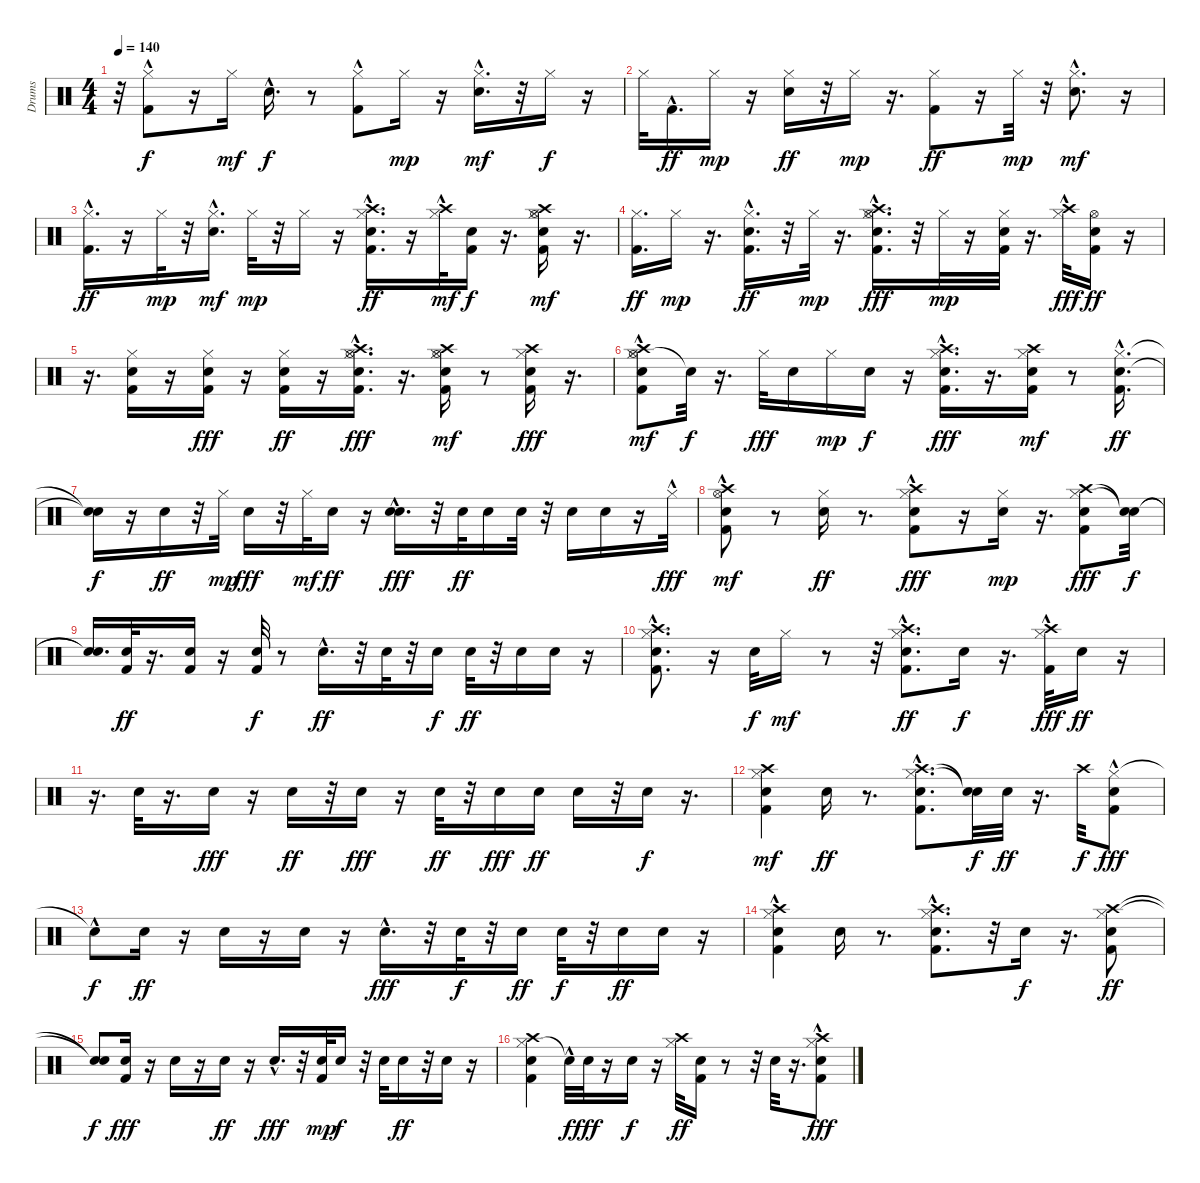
\track ("Drums" "Drums") {instrument percussion}
\staff {score}
\articulation defaults
\ts (4 4)
\tempo 140
\clef neutral
\ks c
r.32{dy mp} ("Hi-Hat (closed)"{hac} "Kick (hit) 2").8{dy f} r.16 "Hi-Hat (closed)".16{dy mf} "Snare (hit) 2"{hac}.16{d dy f} r.8 ("Hi-Hat (closed)"{hac} "Kick (hit) 2").8 "Hi-Hat (closed)".16{dy mp} r.16 ("Hi-Hat (closed)" "Snare (hit) 2"{hac}).16{d dy mf} r.32 "Hi-Hat (closed)".16{dy f} r.16 |
"Hi-Hat (closed)".32 "Kick (hit) 2"{hac}.16{d dy ff} "Hi-Hat (closed)".16{dy mp} r.16 ("Hi-Hat (closed)" "Snare (hit) 2").16{dy ff} r.32 "Hi-Hat (closed)".16{dy mp} r.16{d} ("Hi-Hat (closed)" "Kick (hit) 2").8{dy ff} r.16 "Hi-Hat (closed)".32{dy mp} r.32 ("Hi-Hat (closed)"{hac} "Snare (hit) 2"{hac}).8{d dy mf} r.16 |
("Hi-Hat (closed)" "Kick (hit) 2"{hac}).16{d dy ff} r.16 "Hi-Hat (closed)".32{dy mp} r.32 ("Snare (hit) 2"{hac} "Hi-Hat (closed)").16{d dy mf} "Hi-Hat (closed)".32{dy mp} r.32 "Hi-Hat (closed)".16 r.16 ("Hi-Hat (closed)"{hac} "Crash high (hit)"{hac} "Kick (hit) 2"{hac} "Snare (hit) 2").16{d dy ff} r.16 ("Crash high (hit)"{hac} "Hi-Hat (closed)").32{dy mf} ("Kick (hit) 2" "Snare (hit) 2").16{dy f} r.16{d} ("Crash high (hit)" "Hi-Hat (closed)" "Hi-Hat (open)" "Kick (hit) 2" "Snare (hit) 2").16{dy mf} r.16{d} |
("Hi-Hat (closed)" "Kick (hit) 2").16{d dy ff} "Hi-Hat (closed)".16{dy mp} r.16{d} ("Hi-Hat (closed)" "Snare (hit) 2"{hac} "Kick (hit) 2").16{d dy ff} r.32 "Hi-Hat (closed)".32{dy mp} r.16{d} ("Crash high (hit)"{hac} "Hi-Hat (closed)"{hac} "Kick (hit) 2" "Hi-Hat (open)" "Snare (hit) 2").16{d dy fff} r.32 "Hi-Hat (closed)".32{dy mp} r.16 ("Kick (hit) 2" "Snare (hit) 2" "Hi-Hat (closed)").32 r.16{d} ("Crash high (hit)" "Hi-Hat (closed)"{hac}).32{dy fff} ("Hi-Hat (open)" "Kick (hit) 2" "Snare (hit) 2").16{dy ff} r.16 |
r.16{d} ("Kick (hit) 2" "Snare (hit) 2" "Hi-Hat (closed)").16 r.16 ("Hi-Hat (closed)" "Kick (hit) 2" "Snare (hit) 2").16{dy fff} r.16 ("Hi-Hat (closed)" "Kick (hit) 2" "Snare (hit) 2").16{dy ff} r.16 ("Crash high (hit)"{hac} "Hi-Hat (closed)"{hac} "Kick (hit) 2" "Snare (hit) 2" "Hi-Hat (open)").16{d dy fff} r.16{d} ("Hi-Hat (closed)" "Kick (hit) 2" "Snare (hit) 2" "Crash high (hit)" "Hi-Hat (open)").16{dy mf} r.8 ("Crash high (hit)" "Kick (hit) 2" "Hi-Hat (closed)" "Snare (hit) 2").16{dy fff} r.16{d} |
("Hi-Hat (closed)" "Kick (hit) 2"{hac} "Snare (hit) 2" "Crash high (hit)" "Hi-Hat (open)").8{dy mf} "Snare (hit)"{t}.32{dy f} r.16{d} "Hi-Hat (closed)".32{dy fff} "Snare (hit) 2".16 "Hi-Hat (closed)".16{dy mp} "Snare (hit) 2".16{dy f} r.16 ("Kick (hit) 2"{hac} "Crash high (hit)"{hac} "Snare (hit) 2" "Hi-Hat (closed)"{hac}).16{d dy fff} r.16{d} ("Hi-Hat (closed)" "Kick (hit) 2" "Snare (hit) 2" "Crash high (hit)").16{dy mf} r.8 ("Hi-Hat (closed)"{hac} "Snare (hit) 2"{hac} "Kick (hit) 2").16{d dy ff} |
("Snare (hit)"{t} "Snare (hit)"{t}).16{dy f} r.16 "Snare (hit) 2".16{dy ff} r.32 "Hi-Hat (closed)".32{dy mp} "Snare (hit) 2".16{dy fff} r.32 "Hi-Hat (closed)".32{dy mf} "Snare (hit) 2".16{dy ff} r.16 ("Hand Clap (hit)"{hac} "Snare (hit) 2").16{d dy fff} r.32 "Snare (hit) 2".32{dy ff} "Snare (hit) 2".16 "Snare (hit) 2".32 r.32 "Snare (hit) 2".16 "Snare (hit) 2".16 r.16 "Hi-Hat (closed)"{hac}.32{dy fff} |
("Crash high (hit)" "Kick (hit) 2"{hac} "Snare (hit) 2"{hac} "Hi-Hat (open)").8{dy mf} r.8 ("Snare (hit) 2" "Hi-Hat (closed)").16{dy ff} r.8{d} ("Crash high (hit)" "Hi-Hat (closed)"{hac} "Kick (hit) 2" "Snare (hit) 2").8{dy fff} r.16 ("Snare (hit) 2" "Hi-Hat (closed)").16{dy mp} r.16{d} ("Crash high (hit)" "Hi-Hat (closed)" "Kick (hit) 2" "Snare (hit) 2").8{dy fff} ("Snare (hit)"{t} "Snare (hit)"{t}).32{dy f} |
("Snare (hit)"{t} "Snare (hit)"{t}).16{d} ("Kick (hit) 2" "Snare (hit) 2").32{dy ff} r.16{d} ("Kick (hit) 2" "Snare (hit) 2").16 r.16 ("Kick (hit) 2" "Snare (hit) 2").32{dy f} r.8 "Snare (hit) 2"{hac}.16{d dy ff} r.32 "Snare (hit) 2".32 r.32 "Snare (hit) 2".16{dy f} "Snare (hit) 2".32{dy ff} r.32 "Snare (hit) 2".16 "Snare (hit) 2".16 r.16 |
("Hi-Hat (closed)"{hac} "Crash high (hit)" "Kick (hit) 2" "Snare (hit) 2").8{d} r.16 "Snare (hit) 2".32{dy f} "Hi-Hat (closed)".16{dy mf} r.8 r.32 ("Crash high (hit)" "Hi-Hat (closed)"{hac} "Kick (hit) 2" "Snare (hit) 2").8{d dy ff} "Snare (hit) 2".16{dy f} r.16{d} ("Hi-Hat (closed)"{hac} "Crash high (hit)" "Kick (hit) 2").32{dy fff} "Snare (hit) 2".16{dy ff} r.16 |
r.16{d} "Snare (hit) 2".32 r.16{d} "Snare (hit) 2".16{dy fff} r.16 "Snare (hit) 2".16{dy ff} r.32 "Snare (hit) 2".16{dy fff} r.16 "Snare (hit) 2".32{dy ff} r.32 "Snare (hit) 2".16{dy fff} "Snare (hit) 2".16{dy ff} "Snare (hit) 2".16 r.32 "Snare (hit) 2".16{dy f} r.16{d} |
("Snare (hit) 2" "Kick (hit) 2" "Hi-Hat (closed)" "Crash high (hit)").4{dy mf} "Snare (hit) 2".16{dy ff} r.8{d} ("Hi-Hat (closed)"{hac} "Crash high (hit)"{hac} "Kick (hit) 2" "Snare (hit) 2").8{d} ("Snare (hit)"{t} "Snare (hit)"{t}).32{dy f} "Snare (hit) 2".32{dy ff} r.16{d} "Crash high (hit)".32{dy f} ("Hi-Hat (closed)" "Snare (hit) 2" "Kick (hit) 2"{hac}).8{dy fff} |
"Snare (hit)"{hac t}.8{dy f} "Snare (hit) 2".16{dy ff} r.16 "Snare (hit) 2".16 r.16 "Snare (hit) 2".16 r.16 "Snare (hit) 2"{hac}.16{d dy fff} r.32 "Snare (hit) 2".32{dy f} r.32 "Snare (hit) 2".16{dy ff} "Snare (hit) 2".32{dy f} r.32 "Snare (hit) 2".16{dy ff} "Snare (hit) 2".16 r.16 |
("Crash high (hit)"{hac} "Hi-Hat (closed)" "Kick (hit) 2"{hac} "Snare (hit) 2"{hac}).4 "Snare (hit) 2".16 r.8{d} ("Crash high (hit)"{hac} "Snare (hit) 2"{hac} "Hi-Hat (closed)"{hac} "Kick (hit) 2").8{d} r.32 "Snare (hit) 2".16{dy f} r.16{d} ("Crash high (hit)" "Hi-Hat (closed)" "Kick (hit) 2" "Snare (hit) 2").8{dy ff} |
("Snare (hit)"{t} "Snare (hit)"{t}).8{dy f} ("Snare (hit) 2" "Kick (hit) 2").16{dy fff} r.16 "Snare (hit) 2".16 r.16 "Snare (hit) 2".16{dy ff} r.16 "Snare (hit) 2"{hac}.16{d dy fff} r.32 ("Snare (hit) 2" "Kick (hit) 2").32{dy mp} "Snare (hit) 2".16{dy f} r.32 "Snare (hit) 2".32 "Snare (hit) 2".16{dy ff} r.32 "Snare (hit) 2".16 r.16 |
("Hi-Hat (closed)" "Crash high (hit)" "Kick (hit) 2" "Snare (hit) 2").4 "Snare (hit)"{hac t}.32{dy f} "Snare (hit) 2".32{dy fff} r.16 "Snare (hit) 2".16{dy f} r.16 ("Hi-Hat (closed)" "Crash high (hit)").32{dy ff} ("Kick (hit) 2" "Snare (hit) 2").16 r.8 r.32 "Snare (hit) 2".32 r.16{d} ("Crash high (hit)"{hac} "Hi-Hat (closed)"{hac} "Kick (hit) 2" "Snare (hit) 2").8{dy fff}
